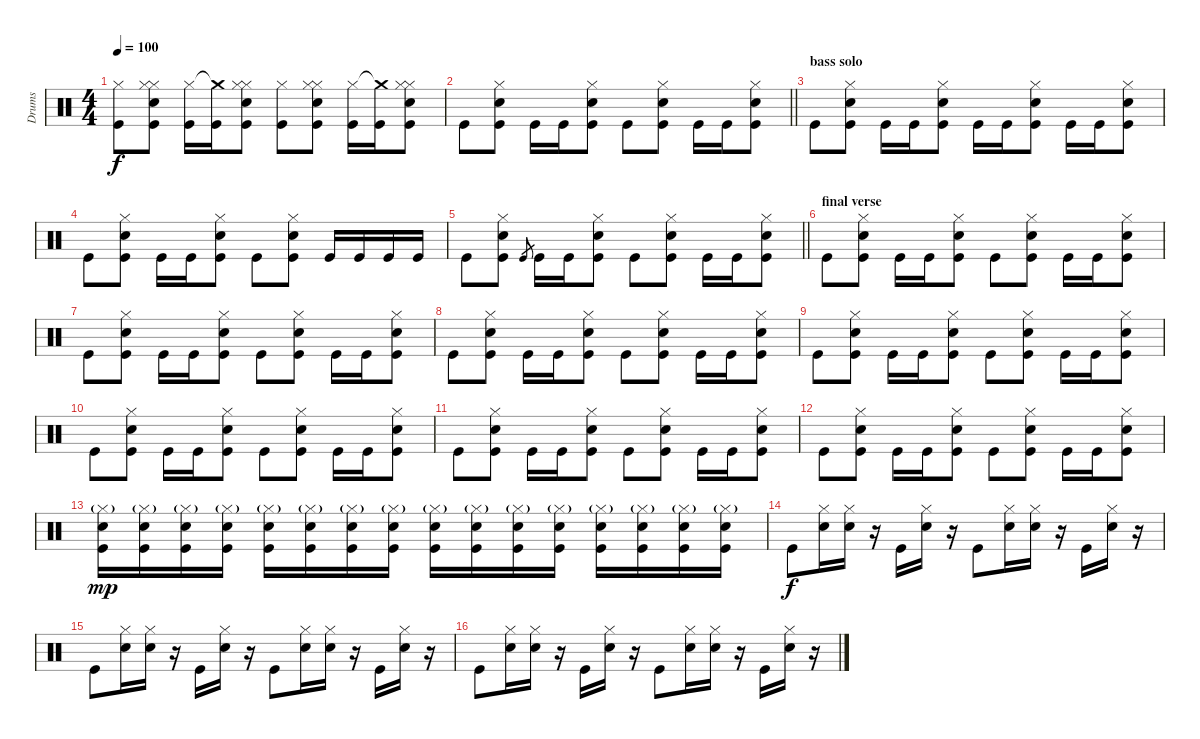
\track ("Drums" "Drums") {instrument percussion}
\staff {score}
\articulation defaults
\ts (4 4)
\tempo 100
\clef neutral
\ks c
("Hi-Hat (closed)" "Kick (hit)").8{dy f} ("Hi-Hat (closed)" "Hi-Hat (closed)" "Snare (hit) 2" "Kick (hit)").8 ("Hi-Hat (closed)" "Kick (hit)").16 ("Crash medium (hit)"{t} "Kick (hit)").16 ("Hi-Hat (closed)" "Hi-Hat (closed)" "Snare (hit) 2" "Kick (hit)").8 ("Hi-Hat (closed)" "Kick (hit)").8 ("Hi-Hat (closed)" "Hi-Hat (closed)" "Snare (hit) 2" "Kick (hit)").8 ("Hi-Hat (closed)" "Kick (hit)").16 ("Crash medium (hit)"{t} "Kick (hit)").16 ("Hi-Hat (closed)" "Hi-Hat (closed)" "Snare (hit) 2" "Kick (hit)").8 |
\barLineRight lightlight "Kick (hit)".8
("Hi-Hat (closed)" "Snare (hit) 2" "Kick (hit)").8 "Kick (hit)".16 "Kick (hit)".16 ("Hi-Hat (closed)" "Snare (hit) 2" "Kick (hit)").8 "Kick (hit)".8 ("Hi-Hat (closed)" "Snare (hit) 2" "Kick (hit)").8 "Kick (hit)".16 "Kick (hit)".16 ("Hi-Hat (closed)" "Snare (hit) 2" "Kick (hit)").8 |
\section ("" "bass solo")
"Kick (hit)".8 ("Hi-Hat (closed)" "Snare (hit) 2" "Kick (hit)").8 "Kick (hit)".16 "Kick (hit)".16 ("Hi-Hat (closed)" "Snare (hit) 2" "Kick (hit)").8 "Kick (hit)".16 "Kick (hit)".16 ("Hi-Hat (closed)" "Snare (hit) 2" "Kick (hit)").8 "Kick (hit)".16 "Kick (hit)".16 ("Hi-Hat (closed)" "Snare (hit) 2" "Kick (hit)").8 |
"Kick (hit)".8 ("Hi-Hat (closed)" "Snare (hit) 2" "Kick (hit)").8 "Kick (hit)".16 "Kick (hit)".16 ("Hi-Hat (closed)" "Snare (hit) 2" "Kick (hit)").8 "Kick (hit)".8 ("Hi-Hat (closed)" "Snare (hit) 2" "Kick (hit)").8 "Kick (hit)".16 "Kick (hit)".16 "Kick (hit)".16 "Kick (hit)".16 |
\barLineRight lightlight "Kick (hit)".8
("Hi-Hat (closed)" "Snare (hit) 2" "Kick (hit)").8 "Kick (hit)".8{gr} "Kick (hit)".16 "Kick (hit)".16 ("Hi-Hat (closed)" "Snare (hit) 2" "Kick (hit)").8 "Kick (hit)".8 ("Hi-Hat (closed)" "Snare (hit) 2" "Kick (hit)").8 "Kick (hit)".16 "Kick (hit)".16 ("Hi-Hat (closed)" "Snare (hit) 2" "Kick (hit)").8 |
\section ("" "final verse")
"Kick (hit)".8 ("Hi-Hat (closed)" "Snare (hit) 2" "Kick (hit)").8 "Kick (hit)".16 "Kick (hit)".16 ("Hi-Hat (closed)" "Snare (hit) 2" "Kick (hit)").8 "Kick (hit)".8 ("Hi-Hat (closed)" "Snare (hit) 2" "Kick (hit)").8 "Kick (hit)".16 "Kick (hit)".16 ("Hi-Hat (closed)" "Snare (hit) 2" "Kick (hit)").8 |
"Kick (hit)".8 ("Hi-Hat (closed)" "Snare (hit) 2" "Kick (hit)").8 "Kick (hit)".16 "Kick (hit)".16 ("Hi-Hat (closed)" "Snare (hit) 2" "Kick (hit)").8 "Kick (hit)".8 ("Hi-Hat (closed)" "Snare (hit) 2" "Kick (hit)").8 "Kick (hit)".16 "Kick (hit)".16 ("Hi-Hat (closed)" "Snare (hit) 2" "Kick (hit)").8 |
"Kick (hit)".8 ("Hi-Hat (closed)" "Snare (hit) 2" "Kick (hit)").8 "Kick (hit)".16 "Kick (hit)".16 ("Hi-Hat (closed)" "Snare (hit) 2" "Kick (hit)").8 "Kick (hit)".8 ("Hi-Hat (closed)" "Snare (hit) 2" "Kick (hit)").8 "Kick (hit)".16 "Kick (hit)".16 ("Hi-Hat (closed)" "Snare (hit) 2" "Kick (hit)").8 |
"Kick (hit)".8 ("Hi-Hat (closed)" "Snare (hit) 2" "Kick (hit)").8 "Kick (hit)".16 "Kick (hit)".16 ("Hi-Hat (closed)" "Snare (hit) 2" "Kick (hit)").8 "Kick (hit)".8 ("Hi-Hat (closed)" "Snare (hit) 2" "Kick (hit)").8 "Kick (hit)".16 "Kick (hit)".16 ("Hi-Hat (closed)" "Snare (hit) 2" "Kick (hit)").8 |
"Kick (hit)".8 ("Hi-Hat (closed)" "Snare (hit) 2" "Kick (hit)").8 "Kick (hit)".16 "Kick (hit)".16 ("Hi-Hat (closed)" "Snare (hit) 2" "Kick (hit)").8 "Kick (hit)".8 ("Hi-Hat (closed)" "Snare (hit) 2" "Kick (hit)").8 "Kick (hit)".16 "Kick (hit)".16 ("Hi-Hat (closed)" "Snare (hit) 2" "Kick (hit)").8 |
"Kick (hit)".8 ("Hi-Hat (closed)" "Snare (hit) 2" "Kick (hit)").8 "Kick (hit)".16 "Kick (hit)".16 ("Hi-Hat (closed)" "Snare (hit) 2" "Kick (hit)").8 "Kick (hit)".8 ("Hi-Hat (closed)" "Snare (hit) 2" "Kick (hit)").8 "Kick (hit)".16 "Kick (hit)".16 ("Hi-Hat (closed)" "Snare (hit) 2" "Kick (hit)").8 |
"Kick (hit)".8 ("Hi-Hat (closed)" "Snare (hit) 2" "Kick (hit)").8 "Kick (hit)".16 "Kick (hit)".16 ("Hi-Hat (closed)" "Snare (hit) 2" "Kick (hit)").8 "Kick (hit)".8 ("Hi-Hat (closed)" "Snare (hit) 2" "Kick (hit)").8 "Kick (hit)".16 "Kick (hit)".16 ("Hi-Hat (closed)" "Snare (hit) 2" "Kick (hit)").8 |
("Hi-Hat (closed)"{g} "Snare (hit) 2" "Kick (hit)").16{dy mp} ("Hi-Hat (closed)"{g} "Snare (hit) 2" "Kick (hit)").16 ("Hi-Hat (closed)"{g} "Snare (hit) 2" "Kick (hit)").16 ("Hi-Hat (closed)"{g} "Snare (hit) 2" "Kick (hit)").16 ("Hi-Hat (closed)"{g} "Snare (hit) 2" "Kick (hit)").16 ("Hi-Hat (closed)"{g} "Snare (hit) 2" "Kick (hit)").16 ("Hi-Hat (closed)"{g} "Snare (hit) 2" "Kick (hit)").16 ("Hi-Hat (closed)"{g} "Snare (hit) 2" "Kick (hit)").16 ("Hi-Hat (closed)"{g} "Snare (hit) 2" "Kick (hit)").16 ("Hi-Hat (closed)"{g} "Snare (hit) 2" "Kick (hit)").16 ("Hi-Hat (closed)"{g} "Snare (hit) 2" "Kick (hit)").16 ("Hi-Hat (closed)"{g} "Snare (hit) 2" "Kick (hit)").16 ("Hi-Hat (closed)"{g} "Snare (hit) 2" "Kick (hit)").16 ("Hi-Hat (closed)"{g} "Snare (hit) 2" "Kick (hit)").16 ("Hi-Hat (closed)"{g} "Snare (hit) 2" "Kick (hit)").16 ("Hi-Hat (closed)"{g} "Snare (hit) 2" "Kick (hit)").16 |
"Kick (hit)".8{dy f} ("Hi-Hat (closed)" "Snare (hit) 2").16 ("Hi-Hat (closed)" "Snare (hit) 2").16 r.16 "Kick (hit)".16 ("Hi-Hat (closed)" "Snare (hit) 2").16 r.16 "Kick (hit)".8 ("Hi-Hat (closed)" "Snare (hit) 2").16 ("Hi-Hat (closed)" "Snare (hit) 2").16 r.16 "Kick (hit)".16 ("Hi-Hat (closed)" "Snare (hit) 2").16 r.16 |
"Kick (hit)".8 ("Hi-Hat (closed)" "Snare (hit) 2").16 ("Hi-Hat (closed)" "Snare (hit) 2").16 r.16 "Kick (hit)".16 ("Hi-Hat (closed)" "Snare (hit) 2").16 r.16 "Kick (hit)".8 ("Hi-Hat (closed)" "Snare (hit) 2").16 ("Hi-Hat (closed)" "Snare (hit) 2").16 r.16 "Kick (hit)".16 ("Hi-Hat (closed)" "Snare (hit) 2").16 r.16 |
"Kick (hit)".8 ("Hi-Hat (closed)" "Snare (hit) 2").16 ("Hi-Hat (closed)" "Snare (hit) 2").16 r.16 "Kick (hit)".16 ("Hi-Hat (closed)" "Snare (hit) 2").16 r.16 "Kick (hit)".8 ("Hi-Hat (closed)" "Snare (hit) 2").16 ("Hi-Hat (closed)" "Snare (hit) 2").16 r.16 "Kick (hit)".16 ("Hi-Hat (closed)" "Snare (hit) 2").16 r.16
